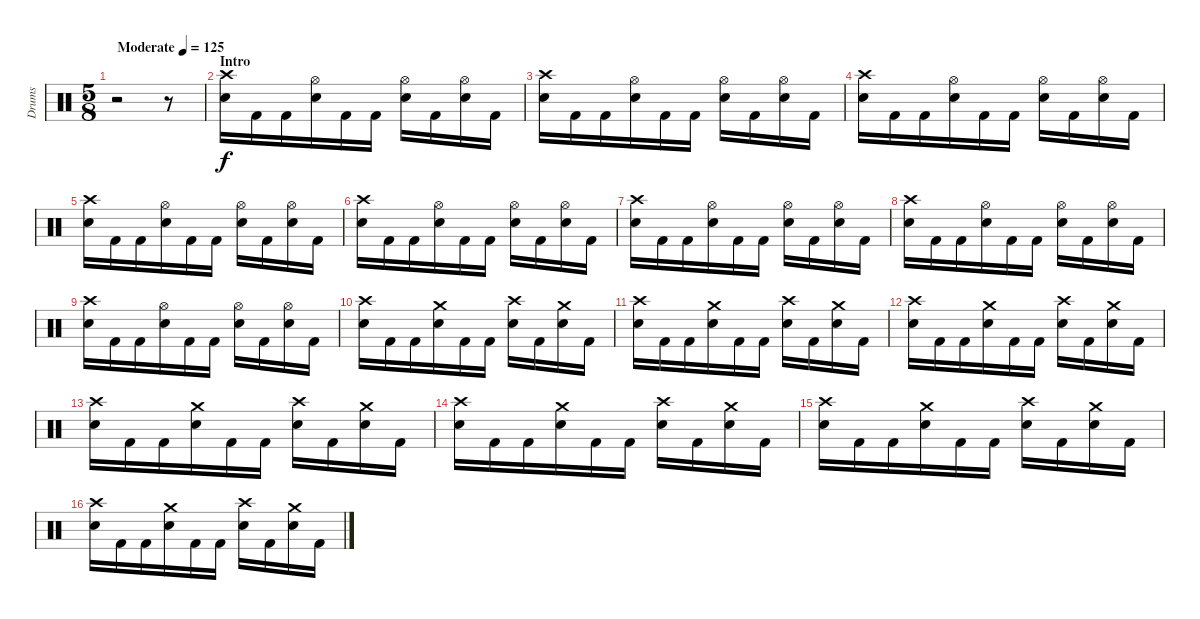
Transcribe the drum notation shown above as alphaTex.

\track ("Drums" "Drums") {instrument percussion}
\staff {score}
\articulation defaults
\ts (5 8)
\tempo (125 "Moderate")
\clef neutral
\ks c
r.2{dy f} r.8 |
\section ("" "Intro")
("Crash high (hit)" "Electric Snare (hit)").16 "Kick (hit) 2".16 "Kick (hit) 2".16 ("Hi-Hat (open)" "Electric Snare (hit)").16 "Kick (hit) 2".16 "Kick (hit) 2".16 ("Hi-Hat (open)" "Electric Snare (hit)").16 "Kick (hit) 2".16 ("Hi-Hat (open)" "Electric Snare (hit)").16 "Kick (hit) 2".16 |
("Crash high (hit)" "Electric Snare (hit)").16 "Kick (hit) 2".16 "Kick (hit) 2".16 ("Hi-Hat (open)" "Electric Snare (hit)").16 "Kick (hit) 2".16 "Kick (hit) 2".16 ("Hi-Hat (open)" "Electric Snare (hit)").16 "Kick (hit) 2".16 ("Hi-Hat (open)" "Electric Snare (hit)").16 "Kick (hit) 2".16 |
("Crash high (hit)" "Electric Snare (hit)").16 "Kick (hit) 2".16 "Kick (hit) 2".16 ("Hi-Hat (open)" "Electric Snare (hit)").16 "Kick (hit) 2".16 "Kick (hit) 2".16 ("Hi-Hat (open)" "Electric Snare (hit)").16 "Kick (hit) 2".16 ("Hi-Hat (open)" "Electric Snare (hit)").16 "Kick (hit) 2".16 |
("Crash high (hit)" "Electric Snare (hit)").16 "Kick (hit) 2".16 "Kick (hit) 2".16 ("Hi-Hat (open)" "Electric Snare (hit)").16 "Kick (hit) 2".16 "Kick (hit) 2".16 ("Hi-Hat (open)" "Electric Snare (hit)").16 "Kick (hit) 2".16 ("Hi-Hat (open)" "Electric Snare (hit)").16 "Kick (hit) 2".16 |
("Crash high (hit)" "Electric Snare (hit)").16 "Kick (hit) 2".16 "Kick (hit) 2".16 ("Hi-Hat (open)" "Electric Snare (hit)").16 "Kick (hit) 2".16 "Kick (hit) 2".16 ("Hi-Hat (open)" "Electric Snare (hit)").16 "Kick (hit) 2".16 ("Hi-Hat (open)" "Electric Snare (hit)").16 "Kick (hit) 2".16 |
("Crash high (hit)" "Electric Snare (hit)").16 "Kick (hit) 2".16 "Kick (hit) 2".16 ("Hi-Hat (open)" "Electric Snare (hit)").16 "Kick (hit) 2".16 "Kick (hit) 2".16 ("Hi-Hat (open)" "Electric Snare (hit)").16 "Kick (hit) 2".16 ("Hi-Hat (open)" "Electric Snare (hit)").16 "Kick (hit) 2".16 |
("Crash high (hit)" "Electric Snare (hit)").16 "Kick (hit) 2".16 "Kick (hit) 2".16 ("Hi-Hat (open)" "Electric Snare (hit)").16 "Kick (hit) 2".16 "Kick (hit) 2".16 ("Hi-Hat (open)" "Electric Snare (hit)").16 "Kick (hit) 2".16 ("Hi-Hat (open)" "Electric Snare (hit)").16 "Kick (hit) 2".16 |
("Crash high (hit)" "Electric Snare (hit)").16 "Kick (hit) 2".16 "Kick (hit) 2".16 ("Hi-Hat (open)" "Electric Snare (hit)").16 "Kick (hit) 2".16 "Kick (hit) 2".16 ("Hi-Hat (open)" "Electric Snare (hit)").16 "Kick (hit) 2".16 ("Hi-Hat (open)" "Electric Snare (hit)").16 "Kick (hit) 2".16 |
("Crash high (hit)" "Electric Snare (hit)").16 "Kick (hit) 2".16 "Kick (hit) 2".16 ("Crash medium (hit)" "Electric Snare (hit)").16 "Kick (hit) 2".16 "Kick (hit) 2".16 ("Crash high (hit)" "Electric Snare (hit)").16 "Kick (hit) 2".16 ("Crash medium (hit)" "Electric Snare (hit)").16 "Kick (hit) 2".16 |
("Crash high (hit)" "Electric Snare (hit)").16 "Kick (hit) 2".16 "Kick (hit) 2".16 ("Crash medium (hit)" "Electric Snare (hit)").16 "Kick (hit) 2".16 "Kick (hit) 2".16 ("Crash high (hit)" "Electric Snare (hit)").16 "Kick (hit) 2".16 ("Crash medium (hit)" "Electric Snare (hit)").16 "Kick (hit) 2".16 |
("Crash high (hit)" "Electric Snare (hit)").16 "Kick (hit) 2".16 "Kick (hit) 2".16 ("Crash medium (hit)" "Electric Snare (hit)").16 "Kick (hit) 2".16 "Kick (hit) 2".16 ("Crash high (hit)" "Electric Snare (hit)").16 "Kick (hit) 2".16 ("Crash medium (hit)" "Electric Snare (hit)").16 "Kick (hit) 2".16 |
("Crash high (hit)" "Electric Snare (hit)").16 "Kick (hit) 2".16 "Kick (hit) 2".16 ("Crash medium (hit)" "Electric Snare (hit)").16 "Kick (hit) 2".16 "Kick (hit) 2".16 ("Crash high (hit)" "Electric Snare (hit)").16 "Kick (hit) 2".16 ("Crash medium (hit)" "Electric Snare (hit)").16 "Kick (hit) 2".16 |
("Crash high (hit)" "Electric Snare (hit)").16 "Kick (hit) 2".16 "Kick (hit) 2".16 ("Crash medium (hit)" "Electric Snare (hit)").16 "Kick (hit) 2".16 "Kick (hit) 2".16 ("Crash high (hit)" "Electric Snare (hit)").16 "Kick (hit) 2".16 ("Crash medium (hit)" "Electric Snare (hit)").16 "Kick (hit) 2".16 |
("Crash high (hit)" "Electric Snare (hit)").16 "Kick (hit) 2".16 "Kick (hit) 2".16 ("Crash medium (hit)" "Electric Snare (hit)").16 "Kick (hit) 2".16 "Kick (hit) 2".16 ("Crash high (hit)" "Electric Snare (hit)").16 "Kick (hit) 2".16 ("Crash medium (hit)" "Electric Snare (hit)").16 "Kick (hit) 2".16 |
("Crash high (hit)" "Electric Snare (hit)").16 "Kick (hit) 2".16 "Kick (hit) 2".16 ("Crash medium (hit)" "Electric Snare (hit)").16 "Kick (hit) 2".16 "Kick (hit) 2".16 ("Crash high (hit)" "Electric Snare (hit)").16 "Kick (hit) 2".16 ("Crash medium (hit)" "Electric Snare (hit)").16 "Kick (hit) 2".16
